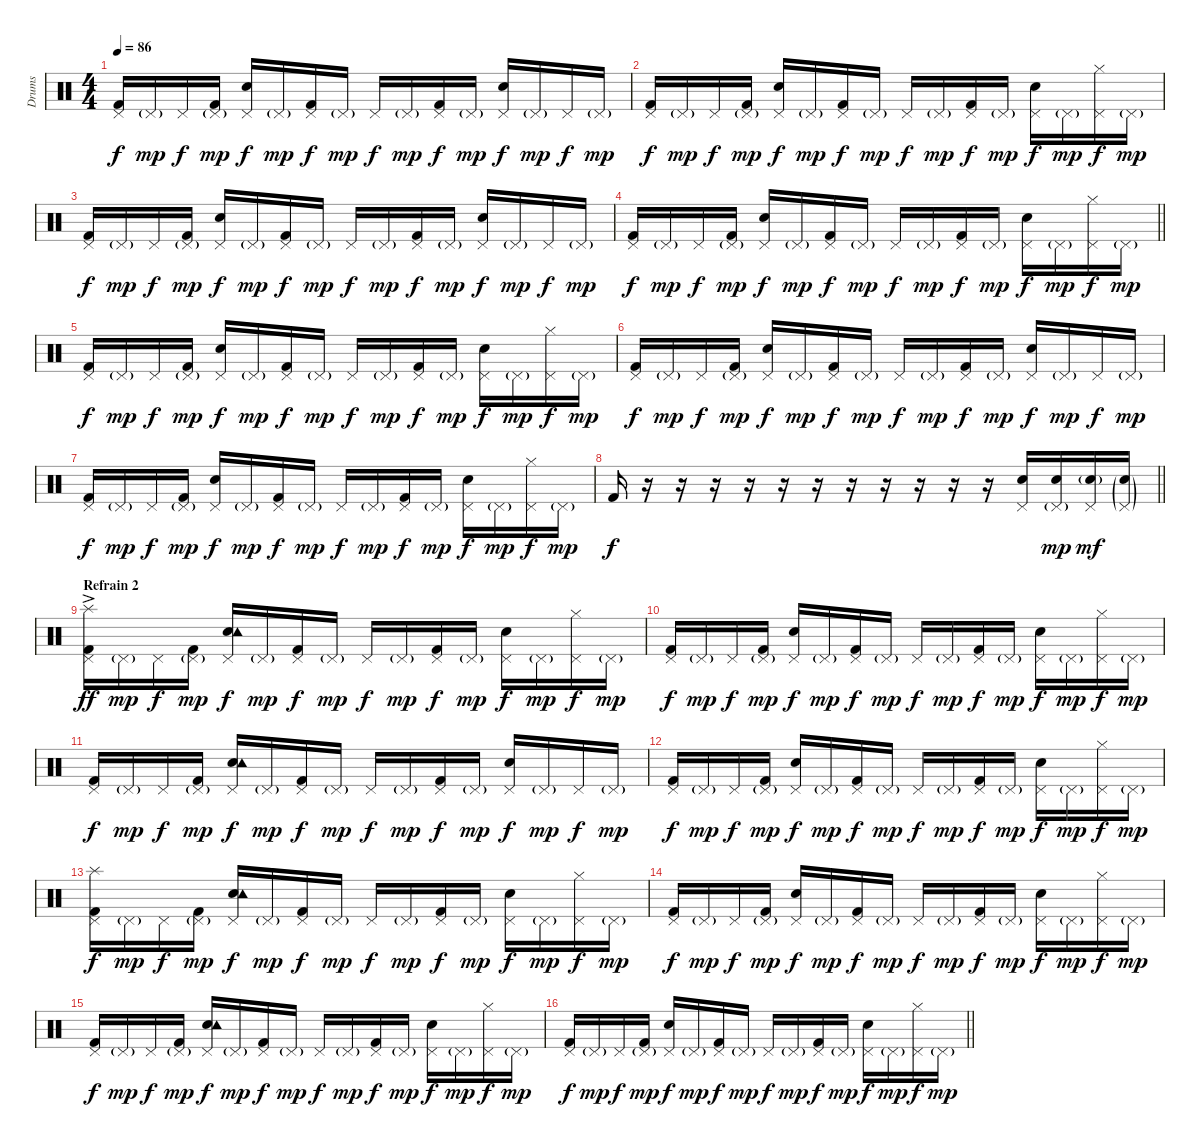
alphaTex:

\track ("Drums" "Drums") {instrument percussion}
\staff {score}
\articulation defaults
\ts (4 4)
\tempo 86
\clef neutral
\ks c
("Pedal Hi-Hat (hit)" "Kick (hit) 2").16{dy f} "Pedal Hi-Hat (hit)"{g}.16{dy mp} "Pedal Hi-Hat (hit)".16{dy f} ("Pedal Hi-Hat (hit)"{g} "Kick (hit) 2").16{dy mp} ("Pedal Hi-Hat (hit)" "Snare (hit) 2").16{dy f} "Pedal Hi-Hat (hit)"{g}.16{dy mp} ("Pedal Hi-Hat (hit)" "Kick (hit) 2").16{dy f} "Pedal Hi-Hat (hit)"{g}.16{dy mp} "Pedal Hi-Hat (hit)".16{dy f} "Pedal Hi-Hat (hit)"{g}.16{dy mp} ("Pedal Hi-Hat (hit)" "Kick (hit) 2").16{dy f} "Pedal Hi-Hat (hit)"{g}.16{dy mp} ("Pedal Hi-Hat (hit)" "Snare (hit) 2").16{dy f} "Pedal Hi-Hat (hit)"{g}.16{dy mp} "Pedal Hi-Hat (hit)".16{dy f} "Pedal Hi-Hat (hit)"{g}.16{dy mp} |
("Pedal Hi-Hat (hit)" "Kick (hit) 2").16{dy f} "Pedal Hi-Hat (hit)"{g}.16{dy mp} "Pedal Hi-Hat (hit)".16{dy f} ("Pedal Hi-Hat (hit)"{g} "Kick (hit) 2").16{dy mp} ("Pedal Hi-Hat (hit)" "Snare (hit) 2").16{dy f} "Pedal Hi-Hat (hit)"{g}.16{dy mp} ("Pedal Hi-Hat (hit)" "Kick (hit) 2").16{dy f} "Pedal Hi-Hat (hit)"{g}.16{dy mp} "Pedal Hi-Hat (hit)".16{dy f} "Pedal Hi-Hat (hit)"{g}.16{dy mp} ("Pedal Hi-Hat (hit)" "Kick (hit) 2").16{dy f} "Pedal Hi-Hat (hit)"{g}.16{dy mp} ("Pedal Hi-Hat (hit)" "Snare (hit) 2").16{dy f} "Pedal Hi-Hat (hit)"{g}.16{dy mp} ("Pedal Hi-Hat (hit)" "Hi-Hat (closed)").16{dy f} "Pedal Hi-Hat (hit)"{g}.16{dy mp} |
("Pedal Hi-Hat (hit)" "Kick (hit) 2").16{dy f} "Pedal Hi-Hat (hit)"{g}.16{dy mp} "Pedal Hi-Hat (hit)".16{dy f} ("Pedal Hi-Hat (hit)"{g} "Kick (hit) 2").16{dy mp} ("Pedal Hi-Hat (hit)" "Snare (hit) 2").16{dy f} "Pedal Hi-Hat (hit)"{g}.16{dy mp} ("Pedal Hi-Hat (hit)" "Kick (hit) 2").16{dy f} "Pedal Hi-Hat (hit)"{g}.16{dy mp} "Pedal Hi-Hat (hit)".16{dy f} "Pedal Hi-Hat (hit)"{g}.16{dy mp} ("Pedal Hi-Hat (hit)" "Kick (hit) 2").16{dy f} "Pedal Hi-Hat (hit)"{g}.16{dy mp} ("Pedal Hi-Hat (hit)" "Snare (hit) 2").16{dy f} "Pedal Hi-Hat (hit)"{g}.16{dy mp} "Pedal Hi-Hat (hit)".16{dy f} "Pedal Hi-Hat (hit)"{g}.16{dy mp} |
\barLineRight lightlight
("Pedal Hi-Hat (hit)" "Kick (hit) 2").16{dy f} "Pedal Hi-Hat (hit)"{g}.16{dy mp} "Pedal Hi-Hat (hit)".16{dy f} ("Pedal Hi-Hat (hit)"{g} "Kick (hit) 2").16{dy mp} ("Pedal Hi-Hat (hit)" "Snare (hit) 2").16{dy f} "Pedal Hi-Hat (hit)"{g}.16{dy mp} ("Pedal Hi-Hat (hit)" "Kick (hit) 2").16{dy f} "Pedal Hi-Hat (hit)"{g}.16{dy mp} "Pedal Hi-Hat (hit)".16{dy f} "Pedal Hi-Hat (hit)"{g}.16{dy mp} ("Pedal Hi-Hat (hit)" "Kick (hit) 2").16{dy f} "Pedal Hi-Hat (hit)"{g}.16{dy mp} ("Pedal Hi-Hat (hit)" "Snare (hit) 2").16{dy f} "Pedal Hi-Hat (hit)"{g}.16{dy mp} ("Pedal Hi-Hat (hit)" "Hi-Hat (closed)").16{dy f} "Pedal Hi-Hat (hit)"{g}.16{dy mp} |
("Pedal Hi-Hat (hit)" "Kick (hit) 2").16{dy f} "Pedal Hi-Hat (hit)"{g}.16{dy mp} "Pedal Hi-Hat (hit)".16{dy f} ("Pedal Hi-Hat (hit)"{g} "Kick (hit) 2").16{dy mp} ("Pedal Hi-Hat (hit)" "Snare (hit) 2").16{dy f} "Pedal Hi-Hat (hit)"{g}.16{dy mp} ("Pedal Hi-Hat (hit)" "Kick (hit) 2").16{dy f} "Pedal Hi-Hat (hit)"{g}.16{dy mp} "Pedal Hi-Hat (hit)".16{dy f} "Pedal Hi-Hat (hit)"{g}.16{dy mp} ("Pedal Hi-Hat (hit)" "Kick (hit) 2").16{dy f} "Pedal Hi-Hat (hit)"{g}.16{dy mp} ("Pedal Hi-Hat (hit)" "Snare (hit) 2").16{dy f} "Pedal Hi-Hat (hit)"{g}.16{dy mp} ("Pedal Hi-Hat (hit)" "Hi-Hat (closed)").16{dy f} "Pedal Hi-Hat (hit)"{g}.16{dy mp} |
("Pedal Hi-Hat (hit)" "Kick (hit) 2").16{dy f} "Pedal Hi-Hat (hit)"{g}.16{dy mp} "Pedal Hi-Hat (hit)".16{dy f} ("Pedal Hi-Hat (hit)"{g} "Kick (hit) 2").16{dy mp} ("Pedal Hi-Hat (hit)" "Snare (hit) 2").16{dy f} "Pedal Hi-Hat (hit)"{g}.16{dy mp} ("Pedal Hi-Hat (hit)" "Kick (hit) 2").16{dy f} "Pedal Hi-Hat (hit)"{g}.16{dy mp} "Pedal Hi-Hat (hit)".16{dy f} "Pedal Hi-Hat (hit)"{g}.16{dy mp} ("Pedal Hi-Hat (hit)" "Kick (hit) 2").16{dy f} "Pedal Hi-Hat (hit)"{g}.16{dy mp} ("Pedal Hi-Hat (hit)" "Snare (hit) 2").16{dy f} "Pedal Hi-Hat (hit)"{g}.16{dy mp} "Pedal Hi-Hat (hit)".16{dy f} "Pedal Hi-Hat (hit)"{g}.16{dy mp} |
("Pedal Hi-Hat (hit)" "Kick (hit) 2").16{dy f} "Pedal Hi-Hat (hit)"{g}.16{dy mp} "Pedal Hi-Hat (hit)".16{dy f} ("Pedal Hi-Hat (hit)"{g} "Kick (hit) 2").16{dy mp} ("Pedal Hi-Hat (hit)" "Snare (hit) 2").16{dy f} "Pedal Hi-Hat (hit)"{g}.16{dy mp} ("Pedal Hi-Hat (hit)" "Kick (hit) 2").16{dy f} "Pedal Hi-Hat (hit)"{g}.16{dy mp} "Pedal Hi-Hat (hit)".16{dy f} "Pedal Hi-Hat (hit)"{g}.16{dy mp} ("Pedal Hi-Hat (hit)" "Kick (hit) 2").16{dy f} "Pedal Hi-Hat (hit)"{g}.16{dy mp} ("Pedal Hi-Hat (hit)" "Snare (hit) 2").16{dy f} "Pedal Hi-Hat (hit)"{g}.16{dy mp} ("Pedal Hi-Hat (hit)" "Hi-Hat (closed)").16{dy f} "Pedal Hi-Hat (hit)"{g}.16{dy mp} |
\barLineRight lightlight "Kick (hit) 2".16{dy f}
r.16 r.16 r.16 r.16 r.16 r.16 r.16 r.16 r.16 r.16 r.16 ("Pedal Hi-Hat (hit)" "Snare (hit) 2").16 ("Pedal Hi-Hat (hit)"{g} "Snare (hit) 2").16{dy mp} ("Pedal Hi-Hat (hit)" "Snare (hit) 2"{g}).16{dy mf} ("Pedal Hi-Hat (hit)"{g} "Snare (hit) 2"{g}).16 |
\section ("" "Refrain 2")
("Pedal Hi-Hat (hit)" "Kick (hit) 2" "Splash (hit)"{ac}).16{dy ff} "Pedal Hi-Hat (hit)"{g}.16{dy mp} "Pedal Hi-Hat (hit)".16{dy f} ("Pedal Hi-Hat (hit)"{g} "Kick (hit) 2").16{dy mp} ("Pedal Hi-Hat (hit)" "Snare (hit) 2" "Tambourine (hit)").16{dy f} "Pedal Hi-Hat (hit)"{g}.16{dy mp} ("Pedal Hi-Hat (hit)" "Kick (hit) 2").16{dy f} "Pedal Hi-Hat (hit)"{g}.16{dy mp} "Pedal Hi-Hat (hit)".16{dy f} "Pedal Hi-Hat (hit)"{g}.16{dy mp} ("Pedal Hi-Hat (hit)" "Kick (hit) 2").16{dy f} "Pedal Hi-Hat (hit)"{g}.16{dy mp} ("Pedal Hi-Hat (hit)" "Snare (hit) 2").16{dy f} "Pedal Hi-Hat (hit)"{g}.16{dy mp} ("Pedal Hi-Hat (hit)" "Hi-Hat (closed)").16{dy f} "Pedal Hi-Hat (hit)"{g}.16{dy mp} |
("Pedal Hi-Hat (hit)" "Kick (hit) 2").16{dy f} "Pedal Hi-Hat (hit)"{g}.16{dy mp} "Pedal Hi-Hat (hit)".16{dy f} ("Pedal Hi-Hat (hit)"{g} "Kick (hit) 2").16{dy mp} ("Pedal Hi-Hat (hit)" "Snare (hit) 2").16{dy f} "Pedal Hi-Hat (hit)"{g}.16{dy mp} ("Pedal Hi-Hat (hit)" "Kick (hit) 2").16{dy f} "Pedal Hi-Hat (hit)"{g}.16{dy mp} "Pedal Hi-Hat (hit)".16{dy f} "Pedal Hi-Hat (hit)"{g}.16{dy mp} ("Pedal Hi-Hat (hit)" "Kick (hit) 2").16{dy f} "Pedal Hi-Hat (hit)"{g}.16{dy mp} ("Pedal Hi-Hat (hit)" "Snare (hit) 2").16{dy f} "Pedal Hi-Hat (hit)"{g}.16{dy mp} ("Pedal Hi-Hat (hit)" "Hi-Hat (closed)").16{dy f} "Pedal Hi-Hat (hit)"{g}.16{dy mp} |
("Pedal Hi-Hat (hit)" "Kick (hit) 2").16{dy f} "Pedal Hi-Hat (hit)"{g}.16{dy mp} "Pedal Hi-Hat (hit)".16{dy f} ("Pedal Hi-Hat (hit)"{g} "Kick (hit) 2").16{dy mp} ("Pedal Hi-Hat (hit)" "Snare (hit) 2" "Tambourine (hit)").16{dy f} "Pedal Hi-Hat (hit)"{g}.16{dy mp} ("Pedal Hi-Hat (hit)" "Kick (hit) 2").16{dy f} "Pedal Hi-Hat (hit)"{g}.16{dy mp} "Pedal Hi-Hat (hit)".16{dy f} "Pedal Hi-Hat (hit)"{g}.16{dy mp} ("Pedal Hi-Hat (hit)" "Kick (hit) 2").16{dy f} "Pedal Hi-Hat (hit)"{g}.16{dy mp} ("Pedal Hi-Hat (hit)" "Snare (hit) 2").16{dy f} "Pedal Hi-Hat (hit)"{g}.16{dy mp} "Pedal Hi-Hat (hit)".16{dy f} "Pedal Hi-Hat (hit)"{g}.16{dy mp} |
("Pedal Hi-Hat (hit)" "Kick (hit) 2").16{dy f} "Pedal Hi-Hat (hit)"{g}.16{dy mp} "Pedal Hi-Hat (hit)".16{dy f} ("Pedal Hi-Hat (hit)"{g} "Kick (hit) 2").16{dy mp} ("Pedal Hi-Hat (hit)" "Snare (hit) 2").16{dy f} "Pedal Hi-Hat (hit)"{g}.16{dy mp} ("Pedal Hi-Hat (hit)" "Kick (hit) 2").16{dy f} "Pedal Hi-Hat (hit)"{g}.16{dy mp} "Pedal Hi-Hat (hit)".16{dy f} "Pedal Hi-Hat (hit)"{g}.16{dy mp} ("Pedal Hi-Hat (hit)" "Kick (hit) 2").16{dy f} "Pedal Hi-Hat (hit)"{g}.16{dy mp} ("Pedal Hi-Hat (hit)" "Snare (hit) 2").16{dy f} "Pedal Hi-Hat (hit)"{g}.16{dy mp} ("Pedal Hi-Hat (hit)" "Hi-Hat (closed)").16{dy f} "Pedal Hi-Hat (hit)"{g}.16{dy mp} |
("Pedal Hi-Hat (hit)" "Kick (hit) 2" "Splash (hit)").16{dy f} "Pedal Hi-Hat (hit)"{g}.16{dy mp} "Pedal Hi-Hat (hit)".16{dy f} ("Pedal Hi-Hat (hit)"{g} "Kick (hit) 2").16{dy mp} ("Pedal Hi-Hat (hit)" "Snare (hit) 2" "Tambourine (hit)").16{dy f} "Pedal Hi-Hat (hit)"{g}.16{dy mp} ("Pedal Hi-Hat (hit)" "Kick (hit) 2").16{dy f} "Pedal Hi-Hat (hit)"{g}.16{dy mp} "Pedal Hi-Hat (hit)".16{dy f} "Pedal Hi-Hat (hit)"{g}.16{dy mp} ("Pedal Hi-Hat (hit)" "Kick (hit) 2").16{dy f} "Pedal Hi-Hat (hit)"{g}.16{dy mp} ("Pedal Hi-Hat (hit)" "Snare (hit) 2").16{dy f} "Pedal Hi-Hat (hit)"{g}.16{dy mp} ("Pedal Hi-Hat (hit)" "Hi-Hat (closed)").16{dy f} "Pedal Hi-Hat (hit)"{g}.16{dy mp} |
("Pedal Hi-Hat (hit)" "Kick (hit) 2").16{dy f} "Pedal Hi-Hat (hit)"{g}.16{dy mp} "Pedal Hi-Hat (hit)".16{dy f} ("Pedal Hi-Hat (hit)"{g} "Kick (hit) 2").16{dy mp} ("Pedal Hi-Hat (hit)" "Snare (hit) 2").16{dy f} "Pedal Hi-Hat (hit)"{g}.16{dy mp} ("Pedal Hi-Hat (hit)" "Kick (hit) 2").16{dy f} "Pedal Hi-Hat (hit)"{g}.16{dy mp} "Pedal Hi-Hat (hit)".16{dy f} "Pedal Hi-Hat (hit)"{g}.16{dy mp} ("Pedal Hi-Hat (hit)" "Kick (hit) 2").16{dy f} "Pedal Hi-Hat (hit)"{g}.16{dy mp} ("Pedal Hi-Hat (hit)" "Snare (hit) 2").16{dy f} "Pedal Hi-Hat (hit)"{g}.16{dy mp} ("Pedal Hi-Hat (hit)" "Hi-Hat (closed)").16{dy f} "Pedal Hi-Hat (hit)"{g}.16{dy mp} |
("Pedal Hi-Hat (hit)" "Kick (hit) 2").16{dy f} "Pedal Hi-Hat (hit)"{g}.16{dy mp} "Pedal Hi-Hat (hit)".16{dy f} ("Pedal Hi-Hat (hit)"{g} "Kick (hit) 2").16{dy mp} ("Pedal Hi-Hat (hit)" "Snare (hit) 2" "Tambourine (hit)").16{dy f} "Pedal Hi-Hat (hit)"{g}.16{dy mp} ("Pedal Hi-Hat (hit)" "Kick (hit) 2").16{dy f} "Pedal Hi-Hat (hit)"{g}.16{dy mp} "Pedal Hi-Hat (hit)".16{dy f} "Pedal Hi-Hat (hit)"{g}.16{dy mp} ("Pedal Hi-Hat (hit)" "Kick (hit) 2").16{dy f} "Pedal Hi-Hat (hit)"{g}.16{dy mp} ("Pedal Hi-Hat (hit)" "Snare (hit) 2").16{dy f} "Pedal Hi-Hat (hit)"{g}.16{dy mp} ("Pedal Hi-Hat (hit)" "Hi-Hat (closed)").16{dy f} "Pedal Hi-Hat (hit)"{g}.16{dy mp} |
\barLineRight lightlight
("Pedal Hi-Hat (hit)" "Kick (hit) 2").16{dy f} "Pedal Hi-Hat (hit)"{g}.16{dy mp} "Pedal Hi-Hat (hit)".16{dy f} ("Pedal Hi-Hat (hit)"{g} "Kick (hit) 2").16{dy mp} ("Pedal Hi-Hat (hit)" "Snare (hit) 2").16{dy f} "Pedal Hi-Hat (hit)"{g}.16{dy mp} ("Pedal Hi-Hat (hit)" "Kick (hit) 2").16{dy f} "Pedal Hi-Hat (hit)"{g}.16{dy mp} "Pedal Hi-Hat (hit)".16{dy f} "Pedal Hi-Hat (hit)"{g}.16{dy mp} ("Pedal Hi-Hat (hit)" "Kick (hit) 2").16{dy f} "Pedal Hi-Hat (hit)"{g}.16{dy mp} ("Pedal Hi-Hat (hit)" "Snare (hit) 2").16{dy f} "Pedal Hi-Hat (hit)"{g}.16{dy mp} ("Pedal Hi-Hat (hit)" "Hi-Hat (closed)").16{dy f} "Pedal Hi-Hat (hit)"{g}.16{dy mp}
